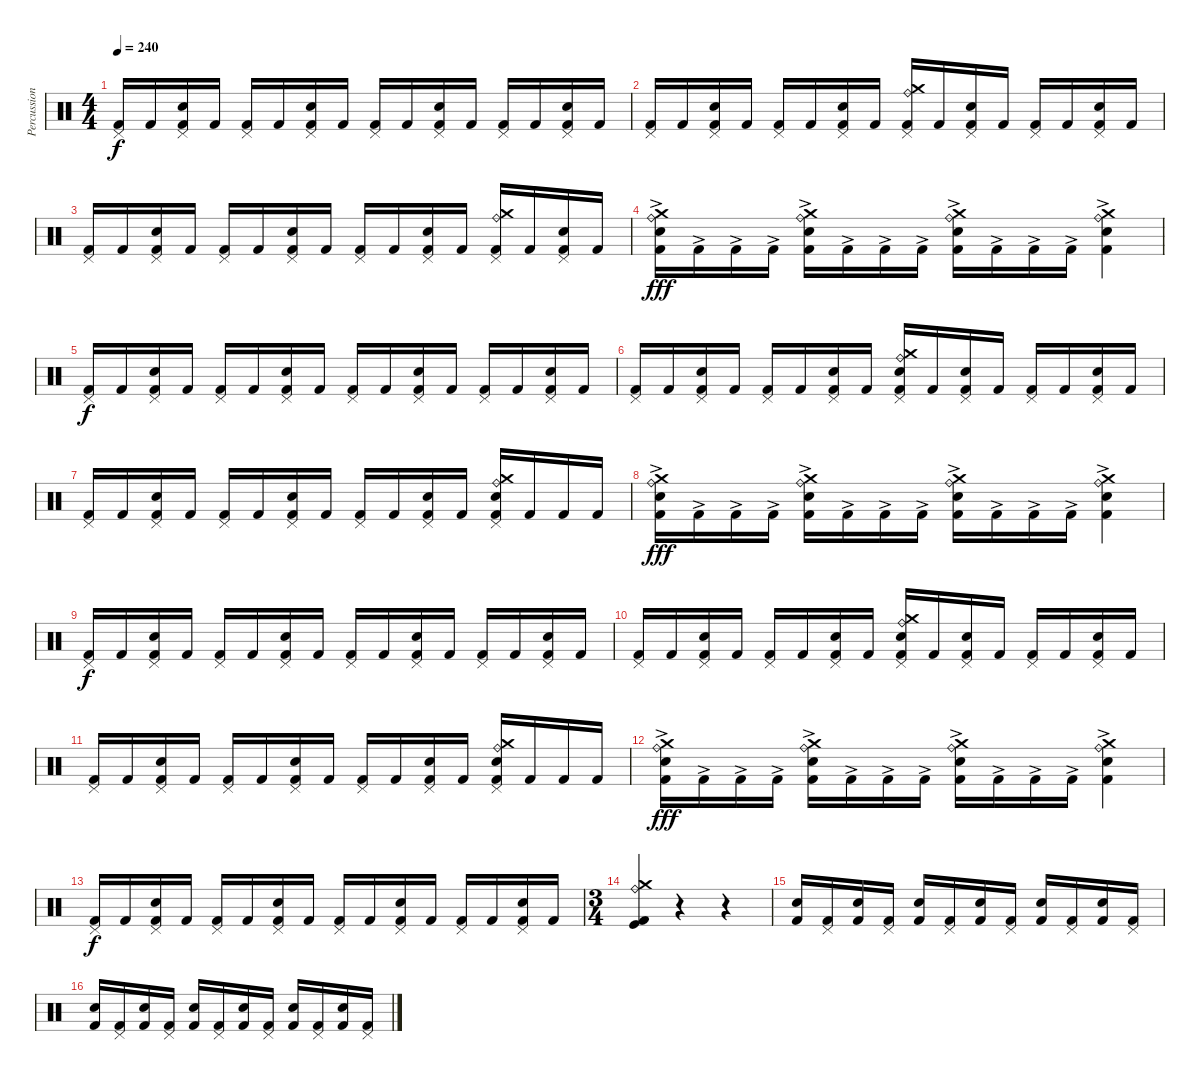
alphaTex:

\track ("Percussions" "Percussion") {instrument percussion}
\staff {score}
\articulation defaults
\ts (4 4)
\tempo 240
\clef neutral
\ks c
("Pedal Hi-Hat (hit)" "Kick (hit) 2").16{dy f} "Kick (hit) 2".16 ("Snare (hit) 2" "Pedal Hi-Hat (hit)" "Kick (hit) 2").16 "Kick (hit) 2".16 ("Pedal Hi-Hat (hit)" "Kick (hit) 2").16 "Kick (hit) 2".16 ("Snare (hit) 2" "Pedal Hi-Hat (hit)" "Kick (hit) 2").16 "Kick (hit) 2".16 ("Pedal Hi-Hat (hit)" "Kick (hit) 2").16 "Kick (hit) 2".16 ("Snare (hit) 2" "Pedal Hi-Hat (hit)" "Kick (hit) 2").16 "Kick (hit) 2".16 ("Pedal Hi-Hat (hit)" "Kick (hit) 2").16 "Kick (hit) 2".16 ("Snare (hit) 2" "Pedal Hi-Hat (hit)" "Kick (hit) 2").16 "Kick (hit) 2".16 |
("Pedal Hi-Hat (hit)" "Kick (hit) 2").16 "Kick (hit) 2".16 ("Snare (hit) 2" "Pedal Hi-Hat (hit)" "Kick (hit) 2").16 "Kick (hit) 2".16 ("Pedal Hi-Hat (hit)" "Kick (hit) 2").16 "Kick (hit) 2".16 ("Snare (hit) 2" "Pedal Hi-Hat (hit)" "Kick (hit) 2").16 "Kick (hit) 2".16 ("Crash medium (hit)" "Ride (bell)" "Pedal Hi-Hat (hit)" "Kick (hit) 2").16 "Kick (hit) 2".16 ("Snare (hit) 2" "Pedal Hi-Hat (hit)" "Kick (hit) 2").16 "Kick (hit) 2".16 ("Pedal Hi-Hat (hit)" "Kick (hit) 2").16 "Kick (hit) 2".16 ("Snare (hit) 2" "Pedal Hi-Hat (hit)" "Kick (hit) 2").16 "Kick (hit) 2".16 |
("Pedal Hi-Hat (hit)" "Kick (hit) 2").16 "Kick (hit) 2".16 ("Snare (hit) 2" "Pedal Hi-Hat (hit)" "Kick (hit) 2").16 "Kick (hit) 2".16 ("Pedal Hi-Hat (hit)" "Kick (hit) 2").16 "Kick (hit) 2".16 ("Snare (hit) 2" "Pedal Hi-Hat (hit)" "Kick (hit) 2").16 "Kick (hit) 2".16 ("Pedal Hi-Hat (hit)" "Kick (hit) 2").16 "Kick (hit) 2".16 ("Snare (hit) 2" "Pedal Hi-Hat (hit)" "Kick (hit) 2").16 "Kick (hit) 2".16 ("Crash medium (hit)" "Ride (bell)" "Pedal Hi-Hat (hit)" "Kick (hit) 2").16 "Kick (hit) 2".16 ("Snare (hit) 2" "Pedal Hi-Hat (hit)" "Kick (hit) 2").16 "Kick (hit) 2".16 |
("Snare (hit) 2" "Crash medium (hit)" "Ride (bell)" "Kick (hit) 2"{ac}).16{dy fff} "Kick (hit) 2"{ac}.16 "Kick (hit) 2"{ac}.16 "Kick (hit) 2"{ac}.16 ("Snare (hit) 2" "Crash medium (hit)" "Ride (bell)" "Kick (hit) 2"{ac}).16 "Kick (hit) 2"{ac}.16 "Kick (hit) 2"{ac}.16 "Kick (hit) 2"{ac}.16 ("Snare (hit) 2" "Crash medium (hit)" "Ride (bell)" "Kick (hit) 2"{ac}).16 "Kick (hit) 2"{ac}.16 "Kick (hit) 2"{ac}.16 "Kick (hit) 2"{ac}.16 ("Snare (hit) 2" "Crash medium (hit)" "Ride (bell)" "Kick (hit) 2"{ac}).4 |
("Pedal Hi-Hat (hit)" "Kick (hit) 2").16{dy f} "Kick (hit) 2".16 ("Snare (hit) 2" "Pedal Hi-Hat (hit)" "Kick (hit) 2").16 "Kick (hit) 2".16 ("Pedal Hi-Hat (hit)" "Kick (hit) 2").16 "Kick (hit) 2".16 ("Snare (hit) 2" "Pedal Hi-Hat (hit)" "Kick (hit) 2").16 "Kick (hit) 2".16 ("Pedal Hi-Hat (hit)" "Kick (hit) 2").16 "Kick (hit) 2".16 ("Snare (hit) 2" "Pedal Hi-Hat (hit)" "Kick (hit) 2").16 "Kick (hit) 2".16 ("Pedal Hi-Hat (hit)" "Kick (hit) 2").16 "Kick (hit) 2".16 ("Snare (hit) 2" "Pedal Hi-Hat (hit)" "Kick (hit) 2").16 "Kick (hit) 2".16 |
("Pedal Hi-Hat (hit)" "Kick (hit) 2").16 "Kick (hit) 2".16 ("Snare (hit) 2" "Pedal Hi-Hat (hit)" "Kick (hit) 2").16 "Kick (hit) 2".16 ("Pedal Hi-Hat (hit)" "Kick (hit) 2").16 "Kick (hit) 2".16 ("Snare (hit) 2" "Pedal Hi-Hat (hit)" "Kick (hit) 2").16 "Kick (hit) 2".16 ("Snare (hit) 2" "Crash medium (hit)" "Ride (bell)" "Pedal Hi-Hat (hit)" "Kick (hit) 2").16 "Kick (hit) 2".16 ("Snare (hit) 2" "Pedal Hi-Hat (hit)" "Kick (hit) 2").16 "Kick (hit) 2".16 ("Pedal Hi-Hat (hit)" "Kick (hit) 2").16 "Kick (hit) 2".16 ("Snare (hit) 2" "Pedal Hi-Hat (hit)" "Kick (hit) 2").16 "Kick (hit) 2".16 |
("Pedal Hi-Hat (hit)" "Kick (hit) 2").16 "Kick (hit) 2".16 ("Snare (hit) 2" "Pedal Hi-Hat (hit)" "Kick (hit) 2").16 "Kick (hit) 2".16 ("Pedal Hi-Hat (hit)" "Kick (hit) 2").16 "Kick (hit) 2".16 ("Snare (hit) 2" "Pedal Hi-Hat (hit)" "Kick (hit) 2").16 "Kick (hit) 2".16 ("Pedal Hi-Hat (hit)" "Kick (hit) 2").16 "Kick (hit) 2".16 ("Snare (hit) 2" "Pedal Hi-Hat (hit)" "Kick (hit) 2").16 "Kick (hit) 2".16 ("Snare (hit) 2" "Crash medium (hit)" "Ride (bell)" "Pedal Hi-Hat (hit)" "Kick (hit) 2").16 "Kick (hit) 2".16 "Kick (hit) 2".16 "Kick (hit) 2".16 |
("Snare (hit) 2" "Crash medium (hit)" "Ride (bell)" "Kick (hit) 2"{ac}).16{dy fff} "Kick (hit) 2"{ac}.16 "Kick (hit) 2"{ac}.16 "Kick (hit) 2"{ac}.16 ("Snare (hit) 2" "Crash medium (hit)" "Ride (bell)" "Kick (hit) 2"{ac}).16 "Kick (hit) 2"{ac}.16 "Kick (hit) 2"{ac}.16 "Kick (hit) 2"{ac}.16 ("Snare (hit) 2" "Crash medium (hit)" "Ride (bell)" "Kick (hit) 2"{ac}).16 "Kick (hit) 2"{ac}.16 "Kick (hit) 2"{ac}.16 "Kick (hit) 2"{ac}.16 ("Snare (hit) 2" "Crash medium (hit)" "Ride (bell)" "Kick (hit) 2"{ac}).4 |
("Pedal Hi-Hat (hit)" "Kick (hit) 2").16{dy f} "Kick (hit) 2".16 ("Snare (hit) 2" "Pedal Hi-Hat (hit)" "Kick (hit) 2").16 "Kick (hit) 2".16 ("Pedal Hi-Hat (hit)" "Kick (hit) 2").16 "Kick (hit) 2".16 ("Snare (hit) 2" "Pedal Hi-Hat (hit)" "Kick (hit) 2").16 "Kick (hit) 2".16 ("Pedal Hi-Hat (hit)" "Kick (hit) 2").16 "Kick (hit) 2".16 ("Snare (hit) 2" "Pedal Hi-Hat (hit)" "Kick (hit) 2").16 "Kick (hit) 2".16 ("Pedal Hi-Hat (hit)" "Kick (hit) 2").16 "Kick (hit) 2".16 ("Snare (hit) 2" "Pedal Hi-Hat (hit)" "Kick (hit) 2").16 "Kick (hit) 2".16 |
("Pedal Hi-Hat (hit)" "Kick (hit) 2").16 "Kick (hit) 2".16 ("Snare (hit) 2" "Pedal Hi-Hat (hit)" "Kick (hit) 2").16 "Kick (hit) 2".16 ("Pedal Hi-Hat (hit)" "Kick (hit) 2").16 "Kick (hit) 2".16 ("Snare (hit) 2" "Pedal Hi-Hat (hit)" "Kick (hit) 2").16 "Kick (hit) 2".16 ("Snare (hit) 2" "Crash medium (hit)" "Ride (bell)" "Pedal Hi-Hat (hit)" "Kick (hit) 2").16 "Kick (hit) 2".16 ("Snare (hit) 2" "Pedal Hi-Hat (hit)" "Kick (hit) 2").16 "Kick (hit) 2".16 ("Pedal Hi-Hat (hit)" "Kick (hit) 2").16 "Kick (hit) 2".16 ("Snare (hit) 2" "Pedal Hi-Hat (hit)" "Kick (hit) 2").16 "Kick (hit) 2".16 |
("Pedal Hi-Hat (hit)" "Kick (hit) 2").16 "Kick (hit) 2".16 ("Snare (hit) 2" "Pedal Hi-Hat (hit)" "Kick (hit) 2").16 "Kick (hit) 2".16 ("Pedal Hi-Hat (hit)" "Kick (hit) 2").16 "Kick (hit) 2".16 ("Snare (hit) 2" "Pedal Hi-Hat (hit)" "Kick (hit) 2").16 "Kick (hit) 2".16 ("Pedal Hi-Hat (hit)" "Kick (hit) 2").16 "Kick (hit) 2".16 ("Snare (hit) 2" "Pedal Hi-Hat (hit)" "Kick (hit) 2").16 "Kick (hit) 2".16 ("Snare (hit) 2" "Crash medium (hit)" "Ride (bell)" "Pedal Hi-Hat (hit)" "Kick (hit) 2").16 "Kick (hit) 2".16 "Kick (hit) 2".16 "Kick (hit) 2".16 |
("Snare (hit) 2" "Crash medium (hit)" "Ride (bell)" "Kick (hit) 2"{ac}).16{dy fff} "Kick (hit) 2"{ac}.16 "Kick (hit) 2"{ac}.16 "Kick (hit) 2"{ac}.16 ("Snare (hit) 2" "Crash medium (hit)" "Ride (bell)" "Kick (hit) 2"{ac}).16 "Kick (hit) 2"{ac}.16 "Kick (hit) 2"{ac}.16 "Kick (hit) 2"{ac}.16 ("Snare (hit) 2" "Crash medium (hit)" "Ride (bell)" "Kick (hit) 2"{ac}).16 "Kick (hit) 2"{ac}.16 "Kick (hit) 2"{ac}.16 "Kick (hit) 2"{ac}.16 ("Snare (hit) 2" "Crash medium (hit)" "Ride (bell)" "Kick (hit) 2"{ac}).4 |
("Pedal Hi-Hat (hit)" "Kick (hit) 2").16{dy f} "Kick (hit) 2".16 ("Snare (hit) 2" "Pedal Hi-Hat (hit)" "Kick (hit) 2").16 "Kick (hit) 2".16 ("Pedal Hi-Hat (hit)" "Kick (hit) 2").16 "Kick (hit) 2".16 ("Snare (hit) 2" "Pedal Hi-Hat (hit)" "Kick (hit) 2").16 "Kick (hit) 2".16 ("Pedal Hi-Hat (hit)" "Kick (hit) 2").16 "Kick (hit) 2".16 ("Snare (hit) 2" "Pedal Hi-Hat (hit)" "Kick (hit) 2").16 "Kick (hit) 2".16 ("Pedal Hi-Hat (hit)" "Kick (hit) 2").16 "Kick (hit) 2".16 ("Snare (hit) 2" "Pedal Hi-Hat (hit)" "Kick (hit) 2").16 "Kick (hit) 2".16 |
\ts (3 4)
("Ride (bell)" "Crash medium (hit)" "Kick (hit)" "Kick (hit) 2").4 r.4 r.4 |
("Snare (hit) 2" "Kick (hit) 2").16 ("Pedal Hi-Hat (hit)" "Kick (hit) 2").16 ("Snare (hit) 2" "Kick (hit) 2").16 ("Pedal Hi-Hat (hit)" "Kick (hit) 2").16 ("Snare (hit) 2" "Kick (hit) 2").16 ("Pedal Hi-Hat (hit)" "Kick (hit) 2").16 ("Snare (hit) 2" "Kick (hit) 2").16 ("Pedal Hi-Hat (hit)" "Kick (hit) 2").16 ("Snare (hit) 2" "Kick (hit) 2").16 ("Pedal Hi-Hat (hit)" "Kick (hit) 2").16 ("Snare (hit) 2" "Kick (hit) 2").16 ("Pedal Hi-Hat (hit)" "Kick (hit) 2").16 |
("Snare (hit) 2" "Kick (hit) 2").16 ("Pedal Hi-Hat (hit)" "Kick (hit) 2").16 ("Snare (hit) 2" "Kick (hit) 2").16 ("Pedal Hi-Hat (hit)" "Kick (hit) 2").16 ("Snare (hit) 2" "Kick (hit) 2").16 ("Pedal Hi-Hat (hit)" "Kick (hit) 2").16 ("Snare (hit) 2" "Kick (hit) 2").16 ("Pedal Hi-Hat (hit)" "Kick (hit) 2").16 ("Snare (hit) 2" "Kick (hit) 2").16 ("Pedal Hi-Hat (hit)" "Kick (hit) 2").16 ("Snare (hit) 2" "Kick (hit) 2").16 ("Pedal Hi-Hat (hit)" "Kick (hit) 2").16
